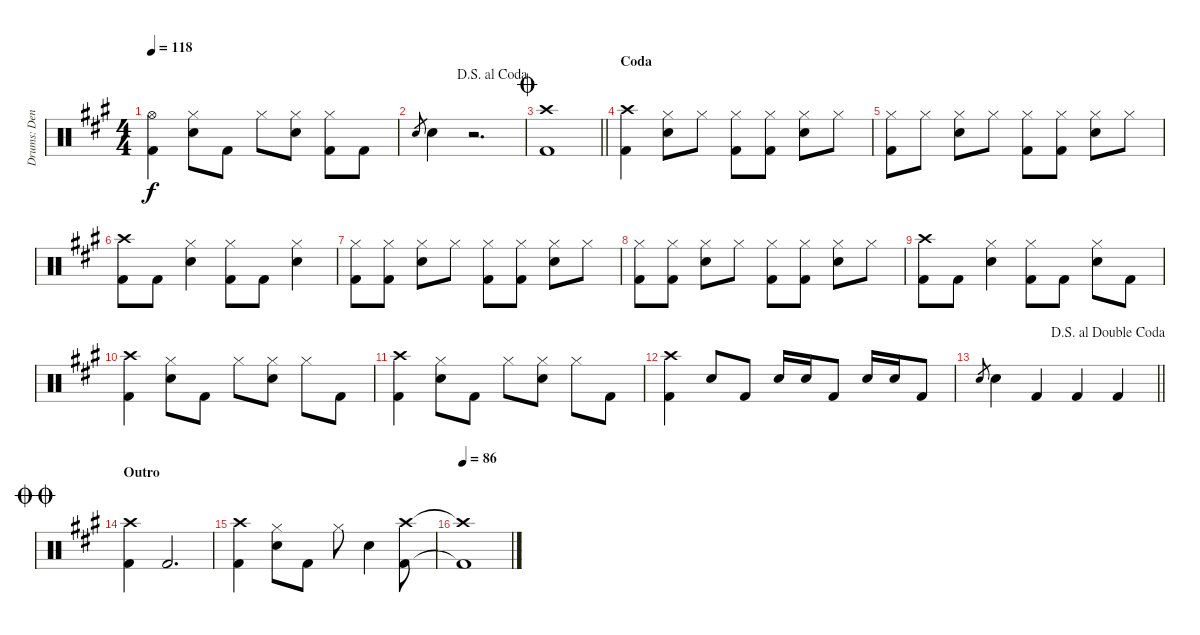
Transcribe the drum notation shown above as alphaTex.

\track ("Drums: Denny" "Drums: Den") {instrument percussion}
\staff {score}
\articulation defaults
\ts (4 4)
\tempo 118
\clef neutral
\ks a
("Hi-Hat (open)" "Kick (hit) 2").4{dy f} ("Hi-Hat (closed)" "Electric Snare (hit)").8 "Kick (hit) 2".8 "Hi-Hat (closed)".8 ("Hi-Hat (closed)" "Electric Snare (hit)").8 ("Hi-Hat (closed)" "Kick (hit) 2").8 "Kick (hit) 2".8 |
\jump dalsegnoalcoda "Snare (hit) 2".8{gr} "Electric Snare (hit)".4
r.2{d} |
\jump coda
\barLineRight lightlight
("Crash high (hit)" "Kick (hit) 2").1 |
\section ("" "Coda")
("Crash high (hit)" "Kick (hit) 2").4 ("Hi-Hat (closed)" "Electric Snare (hit)").8 "Hi-Hat (closed)".8 ("Hi-Hat (closed)" "Kick (hit) 2").8 ("Hi-Hat (closed)" "Kick (hit) 2").8 ("Hi-Hat (closed)" "Electric Snare (hit)").8 "Hi-Hat (closed)".8 |
("Hi-Hat (closed)" "Kick (hit) 2").8 "Hi-Hat (closed)".8 ("Hi-Hat (closed)" "Electric Snare (hit)").8 "Hi-Hat (closed)".8 ("Hi-Hat (closed)" "Kick (hit) 2").8 ("Hi-Hat (closed)" "Kick (hit) 2").8 ("Hi-Hat (closed)" "Electric Snare (hit)").8 "Hi-Hat (closed)".8 |
("Crash high (hit)" "Kick (hit) 2").8 "Kick (hit) 2".8 ("Hi-Hat (closed)" "Electric Snare (hit)").4 ("Hi-Hat (closed)" "Kick (hit) 2").8 "Kick (hit) 2".8 ("Hi-Hat (closed)" "Electric Snare (hit)").4 |
("Hi-Hat (closed)" "Kick (hit) 2").8 ("Hi-Hat (closed)" "Kick (hit) 2").8 ("Hi-Hat (closed)" "Electric Snare (hit)").8 "Hi-Hat (closed)".8 ("Hi-Hat (closed)" "Kick (hit) 2").8 ("Hi-Hat (closed)" "Kick (hit) 2").8 ("Hi-Hat (closed)" "Electric Snare (hit)").8 "Hi-Hat (closed)".8 |
("Hi-Hat (closed)" "Kick (hit) 2").8 ("Hi-Hat (closed)" "Kick (hit) 2").8 ("Hi-Hat (closed)" "Electric Snare (hit)").8 "Hi-Hat (closed)".8 ("Hi-Hat (closed)" "Kick (hit) 2").8 ("Hi-Hat (closed)" "Kick (hit) 2").8 ("Hi-Hat (closed)" "Electric Snare (hit)").8 "Hi-Hat (closed)".8 |
("Crash high (hit)" "Kick (hit) 2").8 "Kick (hit) 2".8 ("Hi-Hat (closed)" "Electric Snare (hit)").4 ("Hi-Hat (closed)" "Kick (hit) 2").8 "Kick (hit) 2".8 ("Hi-Hat (closed)" "Electric Snare (hit)").8 "Kick (hit) 2".8 |
("Crash high (hit)" "Kick (hit) 2").4 ("Hi-Hat (closed)" "Electric Snare (hit)").8 "Kick (hit) 2".8 "Hi-Hat (closed)".8 ("Hi-Hat (closed)" "Electric Snare (hit)").8 "Hi-Hat (closed)".8 "Kick (hit) 2".8 |
("Crash high (hit)" "Kick (hit) 2").4 ("Hi-Hat (closed)" "Electric Snare (hit)").8 "Kick (hit) 2".8 "Hi-Hat (closed)".8 ("Hi-Hat (closed)" "Electric Snare (hit)").8 "Hi-Hat (closed)".8 "Kick (hit) 2".8 |
("Crash high (hit)" "Kick (hit) 2").4 "Electric Snare (hit)".8 "Kick (hit) 2".8 "Electric Snare (hit)".16 "Electric Snare (hit)".16 "Kick (hit) 2".8 "Electric Snare (hit)".16 "Electric Snare (hit)".16 "Kick (hit) 2".8 |
\jump dalsegnoaldoublecoda
\barLineRight lightlight "Snare (hit) 2".8{gr} "Electric Snare (hit)".4 "Kick (hit) 2".4 "Kick (hit) 2".4 "Kick (hit) 2".4
|
\section ("" "Outro")
\jump doublecoda
("Crash high (hit)" "Kick (hit) 2").4 "Kick (hit) 2".2{d} |
("Crash high (hit)" "Kick (hit) 2").4 ("Hi-Hat (closed)" "Electric Snare (hit)").8 "Kick (hit) 2".8 "Hi-Hat (closed)".8 "Electric Snare (hit)".4 ("Crash high (hit)" "Kick (hit) 2").8 |
\tempo 86
("Crash high (hit)"{t} "Kick (hit) 2"{t}).1
